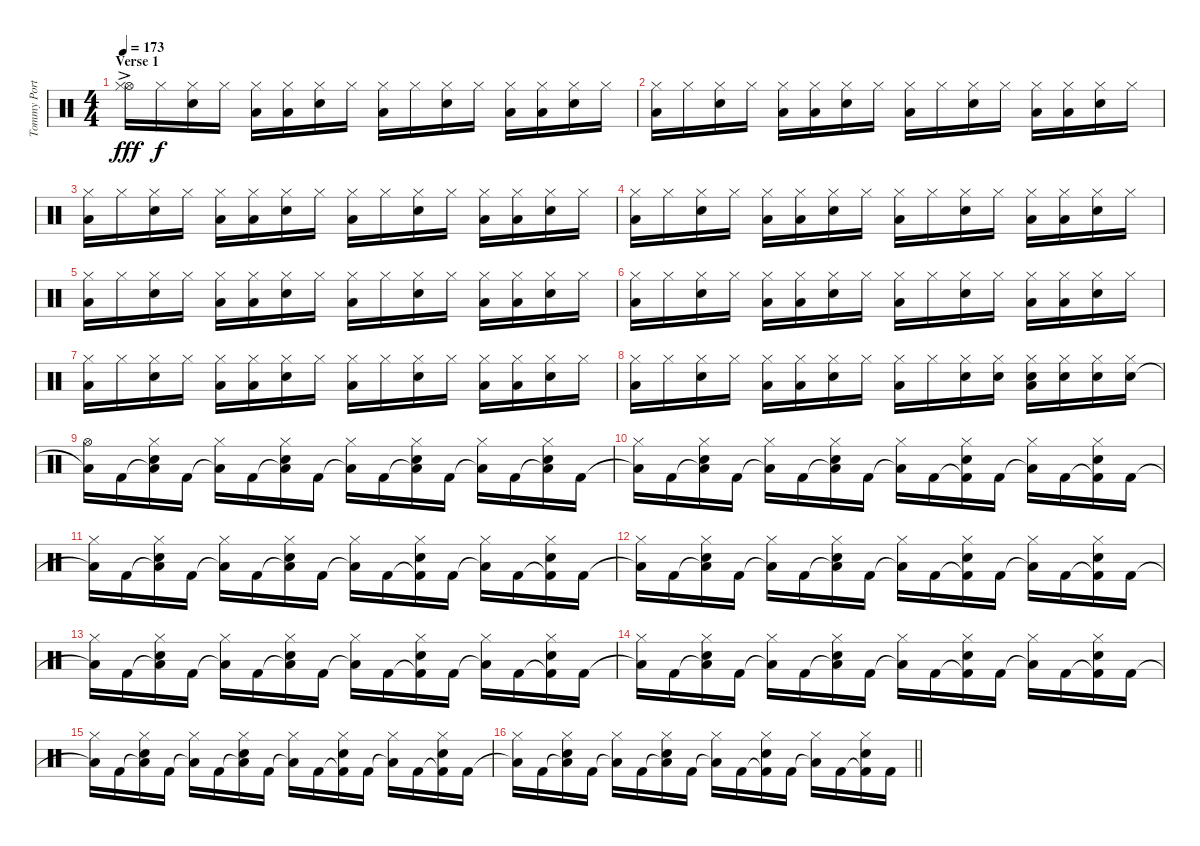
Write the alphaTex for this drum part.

\track ("Tommy Portimo - Drums" "Tommy Port") {instrument percussion}
\staff {score}
\articulation defaults
\ts (4 4)
\section ("" "Verse 1")
\tempo 173
\clef neutral
\ks aminor
("Hi-Hat (open)"{ac} "Hi-Hat (closed)").16{dy fff} "Hi-Hat (closed)".16{dy f} ("Electric Snare (hit)" "Hi-Hat (closed)").16 "Hi-Hat (closed)".16 ("Low Floor Tom (hit)" "Hi-Hat (closed)").16 ("Low Floor Tom (hit)" "Hi-Hat (closed)").16 ("Electric Snare (hit)" "Hi-Hat (closed)").16 "Hi-Hat (closed)".16 ("Low Floor Tom (hit)" "Hi-Hat (closed)").16 "Hi-Hat (closed)".16 ("Electric Snare (hit)" "Hi-Hat (closed)").16 "Hi-Hat (closed)".16 ("Low Floor Tom (hit)" "Hi-Hat (closed)").16 ("Low Floor Tom (hit)" "Hi-Hat (closed)").16 ("Electric Snare (hit)" "Hi-Hat (closed)").16 "Hi-Hat (closed)".16 |
("Low Floor Tom (hit)" "Hi-Hat (closed)").16 "Hi-Hat (closed)".16 ("Electric Snare (hit)" "Hi-Hat (closed)").16 "Hi-Hat (closed)".16 ("Low Floor Tom (hit)" "Hi-Hat (closed)").16 ("Low Floor Tom (hit)" "Hi-Hat (closed)").16 ("Electric Snare (hit)" "Hi-Hat (closed)").16 "Hi-Hat (closed)".16 ("Low Floor Tom (hit)" "Hi-Hat (closed)").16 "Hi-Hat (closed)".16 ("Electric Snare (hit)" "Hi-Hat (closed)").16 "Hi-Hat (closed)".16 ("Low Floor Tom (hit)" "Hi-Hat (closed)").16 ("Low Floor Tom (hit)" "Hi-Hat (closed)").16 ("Electric Snare (hit)" "Hi-Hat (closed)").16 "Hi-Hat (closed)".16 |
("Low Floor Tom (hit)" "Hi-Hat (closed)").16 "Hi-Hat (closed)".16 ("Electric Snare (hit)" "Hi-Hat (closed)").16 "Hi-Hat (closed)".16 ("Low Floor Tom (hit)" "Hi-Hat (closed)").16 ("Low Floor Tom (hit)" "Hi-Hat (closed)").16 ("Electric Snare (hit)" "Hi-Hat (closed)").16 "Hi-Hat (closed)".16 ("Low Floor Tom (hit)" "Hi-Hat (closed)").16 "Hi-Hat (closed)".16 ("Electric Snare (hit)" "Hi-Hat (closed)").16 "Hi-Hat (closed)".16 ("Low Floor Tom (hit)" "Hi-Hat (closed)").16 ("Low Floor Tom (hit)" "Hi-Hat (closed)").16 ("Electric Snare (hit)" "Hi-Hat (closed)").16 "Hi-Hat (closed)".16 |
("Low Floor Tom (hit)" "Hi-Hat (closed)").16 "Hi-Hat (closed)".16 ("Electric Snare (hit)" "Hi-Hat (closed)").16 "Hi-Hat (closed)".16 ("Low Floor Tom (hit)" "Hi-Hat (closed)").16 ("Low Floor Tom (hit)" "Hi-Hat (closed)").16 ("Electric Snare (hit)" "Hi-Hat (closed)").16 "Hi-Hat (closed)".16 ("Low Floor Tom (hit)" "Hi-Hat (closed)").16 "Hi-Hat (closed)".16 ("Electric Snare (hit)" "Hi-Hat (closed)").16 "Hi-Hat (closed)".16 ("Low Floor Tom (hit)" "Hi-Hat (closed)").16 ("Low Floor Tom (hit)" "Hi-Hat (closed)").16 ("Electric Snare (hit)" "Hi-Hat (closed)").16 "Hi-Hat (closed)".16 |
("Low Floor Tom (hit)" "Hi-Hat (closed)").16 "Hi-Hat (closed)".16 ("Electric Snare (hit)" "Hi-Hat (closed)").16 "Hi-Hat (closed)".16 ("Low Floor Tom (hit)" "Hi-Hat (closed)").16 ("Low Floor Tom (hit)" "Hi-Hat (closed)").16 ("Electric Snare (hit)" "Hi-Hat (closed)").16 "Hi-Hat (closed)".16 ("Low Floor Tom (hit)" "Hi-Hat (closed)").16 "Hi-Hat (closed)".16 ("Electric Snare (hit)" "Hi-Hat (closed)").16 "Hi-Hat (closed)".16 ("Low Floor Tom (hit)" "Hi-Hat (closed)").16 ("Low Floor Tom (hit)" "Hi-Hat (closed)").16 ("Electric Snare (hit)" "Hi-Hat (closed)").16 "Hi-Hat (closed)".16 |
("Low Floor Tom (hit)" "Hi-Hat (closed)").16 "Hi-Hat (closed)".16 ("Electric Snare (hit)" "Hi-Hat (closed)").16 "Hi-Hat (closed)".16 ("Low Floor Tom (hit)" "Hi-Hat (closed)").16 ("Low Floor Tom (hit)" "Hi-Hat (closed)").16 ("Electric Snare (hit)" "Hi-Hat (closed)").16 "Hi-Hat (closed)".16 ("Low Floor Tom (hit)" "Hi-Hat (closed)").16 "Hi-Hat (closed)".16 ("Electric Snare (hit)" "Hi-Hat (closed)").16 "Hi-Hat (closed)".16 ("Low Floor Tom (hit)" "Hi-Hat (closed)").16 ("Low Floor Tom (hit)" "Hi-Hat (closed)").16 ("Electric Snare (hit)" "Hi-Hat (closed)").16 "Hi-Hat (closed)".16 |
("Low Floor Tom (hit)" "Hi-Hat (closed)").16 "Hi-Hat (closed)".16 ("Electric Snare (hit)" "Hi-Hat (closed)").16 "Hi-Hat (closed)".16 ("Low Floor Tom (hit)" "Hi-Hat (closed)").16 ("Low Floor Tom (hit)" "Hi-Hat (closed)").16 ("Electric Snare (hit)" "Hi-Hat (closed)").16 "Hi-Hat (closed)".16 ("Low Floor Tom (hit)" "Hi-Hat (closed)").16 "Hi-Hat (closed)".16 ("Electric Snare (hit)" "Hi-Hat (closed)").16 "Hi-Hat (closed)".16 ("Low Floor Tom (hit)" "Hi-Hat (closed)").16 ("Low Floor Tom (hit)" "Hi-Hat (closed)").16 ("Electric Snare (hit)" "Hi-Hat (closed)").16 "Hi-Hat (closed)".16 |
("Low Floor Tom (hit)" "Hi-Hat (closed)").16 "Hi-Hat (closed)".16 ("Electric Snare (hit)" "Hi-Hat (closed)").16 "Hi-Hat (closed)".16 ("Low Floor Tom (hit)" "Hi-Hat (closed)").16 ("Low Floor Tom (hit)" "Hi-Hat (closed)").16 ("Electric Snare (hit)" "Hi-Hat (closed)").16 "Hi-Hat (closed)".16 ("Low Floor Tom (hit)" "Hi-Hat (closed)").16 "Hi-Hat (closed)".16 ("Electric Snare (hit)" "Hi-Hat (closed)").16 ("Electric Snare (hit)" "Hi-Hat (closed)").16 ("Low Floor Tom (hit)" "Electric Snare (hit)" "Hi-Hat (closed)").16 ("Electric Snare (hit)" "Hi-Hat (closed)").16 ("Electric Snare (hit)" "Hi-Hat (closed)").16 ("Electric Snare (hit)" "Hi-Hat (closed)").16 |
("Low Floor Tom (hit)"{t} "Hi-Hat (open)").16 "Kick (hit) 2".16 ("Low Floor Tom (hit)"{t} "Electric Snare (hit)" "Hi-Hat (closed)").16 "Kick (hit) 2".16 ("Low Floor Tom (hit)"{t} "Hi-Hat (closed)").16 "Kick (hit) 2".16 ("Low Floor Tom (hit)"{t} "Electric Snare (hit)" "Hi-Hat (closed)").16 "Kick (hit) 2".16 ("Low Floor Tom (hit)"{t} "Hi-Hat (closed)").16 "Kick (hit) 2".16 ("Low Floor Tom (hit)"{t} "Electric Snare (hit)" "Hi-Hat (closed)").16 "Kick (hit) 2".16 ("Low Floor Tom (hit)"{t} "Hi-Hat (closed)").16 "Kick (hit) 2".16 ("Low Floor Tom (hit)"{t} "Electric Snare (hit)" "Hi-Hat (closed)").16 "Kick (hit) 2".16 |
("Low Floor Tom (hit)"{t} "Hi-Hat (closed)").16 "Kick (hit) 2".16 ("Low Floor Tom (hit)"{t} "Electric Snare (hit)" "Hi-Hat (closed)").16 "Kick (hit) 2".16 ("Low Floor Tom (hit)"{t} "Hi-Hat (closed)").16 "Kick (hit) 2".16 ("Low Floor Tom (hit)"{t} "Electric Snare (hit)" "Hi-Hat (closed)").16 "Kick (hit) 2".16 ("Low Floor Tom (hit)"{t} "Hi-Hat (closed)").16 "Kick (hit) 2".16 ("Kick (hit) 2"{t} "Electric Snare (hit)" "Hi-Hat (closed)").16 "Kick (hit) 2".16 ("Low Floor Tom (hit)"{t} "Hi-Hat (closed)").16 "Kick (hit) 2".16 ("Kick (hit) 2"{t} "Electric Snare (hit)" "Hi-Hat (closed)").16 "Kick (hit) 2".16 |
("Low Floor Tom (hit)"{t} "Hi-Hat (closed)").16 "Kick (hit) 2".16 ("Low Floor Tom (hit)"{t} "Electric Snare (hit)" "Hi-Hat (closed)").16 "Kick (hit) 2".16 ("Low Floor Tom (hit)"{t} "Hi-Hat (closed)").16 "Kick (hit) 2".16 ("Low Floor Tom (hit)"{t} "Electric Snare (hit)" "Hi-Hat (closed)").16 "Kick (hit) 2".16 ("Low Floor Tom (hit)"{t} "Hi-Hat (closed)").16 "Kick (hit) 2".16 ("Kick (hit) 2"{t} "Electric Snare (hit)" "Hi-Hat (closed)").16 "Kick (hit) 2".16 ("Low Floor Tom (hit)"{t} "Hi-Hat (closed)").16 "Kick (hit) 2".16 ("Kick (hit) 2"{t} "Electric Snare (hit)" "Hi-Hat (closed)").16 "Kick (hit) 2".16 |
("Low Floor Tom (hit)"{t} "Hi-Hat (closed)").16 "Kick (hit) 2".16 ("Low Floor Tom (hit)"{t} "Electric Snare (hit)" "Hi-Hat (closed)").16 "Kick (hit) 2".16 ("Low Floor Tom (hit)"{t} "Hi-Hat (closed)").16 "Kick (hit) 2".16 ("Low Floor Tom (hit)"{t} "Electric Snare (hit)" "Hi-Hat (closed)").16 "Kick (hit) 2".16 ("Low Floor Tom (hit)"{t} "Hi-Hat (closed)").16 "Kick (hit) 2".16 ("Kick (hit) 2"{t} "Electric Snare (hit)" "Hi-Hat (closed)").16 "Kick (hit) 2".16 ("Low Floor Tom (hit)"{t} "Hi-Hat (closed)").16 "Kick (hit) 2".16 ("Kick (hit) 2"{t} "Electric Snare (hit)" "Hi-Hat (closed)").16 "Kick (hit) 2".16 |
("Low Floor Tom (hit)"{t} "Hi-Hat (closed)").16 "Kick (hit) 2".16 ("Low Floor Tom (hit)"{t} "Electric Snare (hit)" "Hi-Hat (closed)").16 "Kick (hit) 2".16 ("Low Floor Tom (hit)"{t} "Hi-Hat (closed)").16 "Kick (hit) 2".16 ("Low Floor Tom (hit)"{t} "Electric Snare (hit)" "Hi-Hat (closed)").16 "Kick (hit) 2".16 ("Low Floor Tom (hit)"{t} "Hi-Hat (closed)").16 "Kick (hit) 2".16 ("Kick (hit) 2"{t} "Electric Snare (hit)" "Hi-Hat (closed)").16 "Kick (hit) 2".16 ("Low Floor Tom (hit)"{t} "Hi-Hat (closed)").16 "Kick (hit) 2".16 ("Kick (hit) 2"{t} "Electric Snare (hit)" "Hi-Hat (closed)").16 "Kick (hit) 2".16 |
("Low Floor Tom (hit)"{t} "Hi-Hat (closed)").16 "Kick (hit) 2".16 ("Low Floor Tom (hit)"{t} "Electric Snare (hit)" "Hi-Hat (closed)").16 "Kick (hit) 2".16 ("Low Floor Tom (hit)"{t} "Hi-Hat (closed)").16 "Kick (hit) 2".16 ("Low Floor Tom (hit)"{t} "Electric Snare (hit)" "Hi-Hat (closed)").16 "Kick (hit) 2".16 ("Low Floor Tom (hit)"{t} "Hi-Hat (closed)").16 "Kick (hit) 2".16 ("Kick (hit) 2"{t} "Electric Snare (hit)" "Hi-Hat (closed)").16 "Kick (hit) 2".16 ("Low Floor Tom (hit)"{t} "Hi-Hat (closed)").16 "Kick (hit) 2".16 ("Kick (hit) 2"{t} "Electric Snare (hit)" "Hi-Hat (closed)").16 "Kick (hit) 2".16 |
("Low Floor Tom (hit)"{t} "Hi-Hat (closed)").16 "Kick (hit) 2".16 ("Low Floor Tom (hit)"{t} "Electric Snare (hit)" "Hi-Hat (closed)").16 "Kick (hit) 2".16 ("Low Floor Tom (hit)"{t} "Hi-Hat (closed)").16 "Kick (hit) 2".16 ("Low Floor Tom (hit)"{t} "Electric Snare (hit)" "Hi-Hat (closed)").16 "Kick (hit) 2".16 ("Low Floor Tom (hit)"{t} "Hi-Hat (closed)").16 "Kick (hit) 2".16 ("Kick (hit) 2"{t} "Electric Snare (hit)" "Hi-Hat (closed)").16 "Kick (hit) 2".16 ("Low Floor Tom (hit)"{t} "Hi-Hat (closed)").16 "Kick (hit) 2".16 ("Kick (hit) 2"{t} "Electric Snare (hit)" "Hi-Hat (closed)").16 "Kick (hit) 2".16 |
\barLineRight lightlight
("Low Floor Tom (hit)"{t} "Hi-Hat (closed)").16 "Kick (hit) 2".16 ("Low Floor Tom (hit)"{t} "Electric Snare (hit)" "Hi-Hat (closed)").16 "Kick (hit) 2".16 ("Low Floor Tom (hit)"{t} "Hi-Hat (closed)").16 "Kick (hit) 2".16 ("Low Floor Tom (hit)"{t} "Electric Snare (hit)" "Hi-Hat (closed)").16 "Kick (hit) 2".16 ("Low Floor Tom (hit)"{t} "Hi-Hat (closed)").16 "Kick (hit) 2".16 ("Kick (hit) 2"{t} "Electric Snare (hit)" "Hi-Hat (closed)").16 "Kick (hit) 2".16 ("Low Floor Tom (hit)"{t} "Hi-Hat (closed)").16 "Kick (hit) 2".16 ("Kick (hit) 2"{t} "Electric Snare (hit)" "Hi-Hat (closed)").16 "Kick (hit) 2".16
